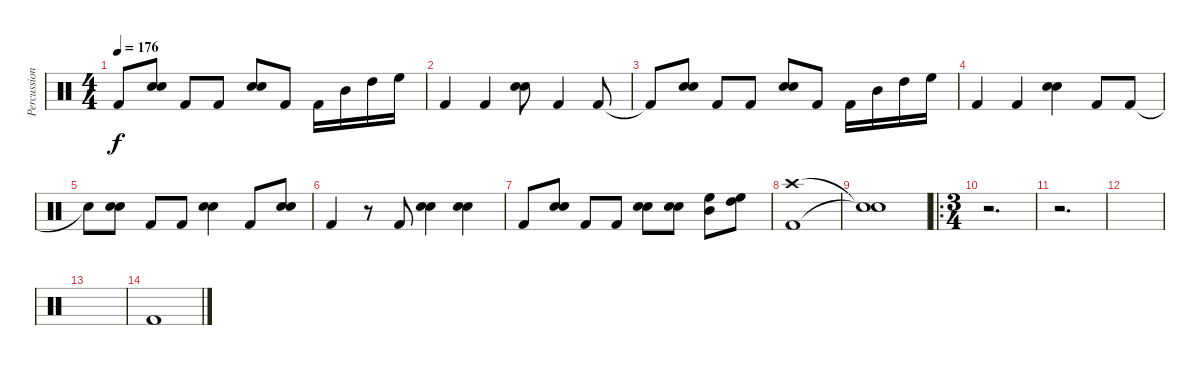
\track ("Percussion" "Percussion") {instrument percussion}
\staff {score}
\articulation defaults
\ts (4 4)
\tempo 176
\clef neutral
\ks c "Kick (hit) 2"{t}.8{dy f}
("Electric Snare (hit)" "Snare (hit) 2").8 "Kick (hit) 2".8 "Kick (hit) 2".8 ("Electric Snare (hit)" "Snare (hit) 2").8 "Kick (hit) 2".8 "Kick (hit) 2".16 "Mid Tom (hit)".16 "High Tom (hit)".16 "High Floor Tom (hit)".16 |
"Kick (hit) 2".4 "Kick (hit) 2".4 ("Electric Snare (hit)" "Snare (hit) 2").8 "Kick (hit) 2".4 "Kick (hit) 2".8 |
"Kick (hit) 2"{t}.8 ("Electric Snare (hit)" "Snare (hit) 2").8 "Kick (hit) 2".8 "Kick (hit) 2".8 ("Electric Snare (hit)" "Snare (hit) 2").8 "Kick (hit) 2".8 "Kick (hit) 2".16 "Mid Tom (hit)".16 "High Tom (hit)".16 "High Floor Tom (hit)".16 |
"Kick (hit) 2".4 "Kick (hit) 2".4 ("Electric Snare (hit)" "Snare (hit) 2").4 "Kick (hit) 2".8 "Kick (hit) 2".8 |
"Snare (hit)"{t}.8 ("Electric Snare (hit)" "Snare (hit) 2").8 "Kick (hit) 2".8 "Kick (hit) 2".8 ("Electric Snare (hit)" "Snare (hit) 2").4 "Kick (hit) 2".8 ("Electric Snare (hit)" "Snare (hit) 2").8 |
"Kick (hit) 2".4 r.8 "Kick (hit) 2".8 ("Electric Snare (hit)" "Snare (hit) 2").4 ("Electric Snare (hit)" "Snare (hit) 2").4 |
"Kick (hit) 2".8 ("Electric Snare (hit)" "Snare (hit) 2").8 "Kick (hit) 2".8 "Kick (hit) 2".8 ("Electric Snare (hit)" "Snare (hit) 2").8 ("Electric Snare (hit)" "Snare (hit) 2").8 ("Mid Tom (hit)" "High Floor Tom (hit)").8 ("High Tom (hit)" "High Floor Tom (hit)").8 |
("Kick (hit) 2" "Crash high (hit)").1 |
("Snare (hit)"{t} "Snare (hit)"{t}).1 |
\ro
\ts (3 4)
r.2{d} |
r.2{d} |
|
|
"Kick (hit) 2".1
